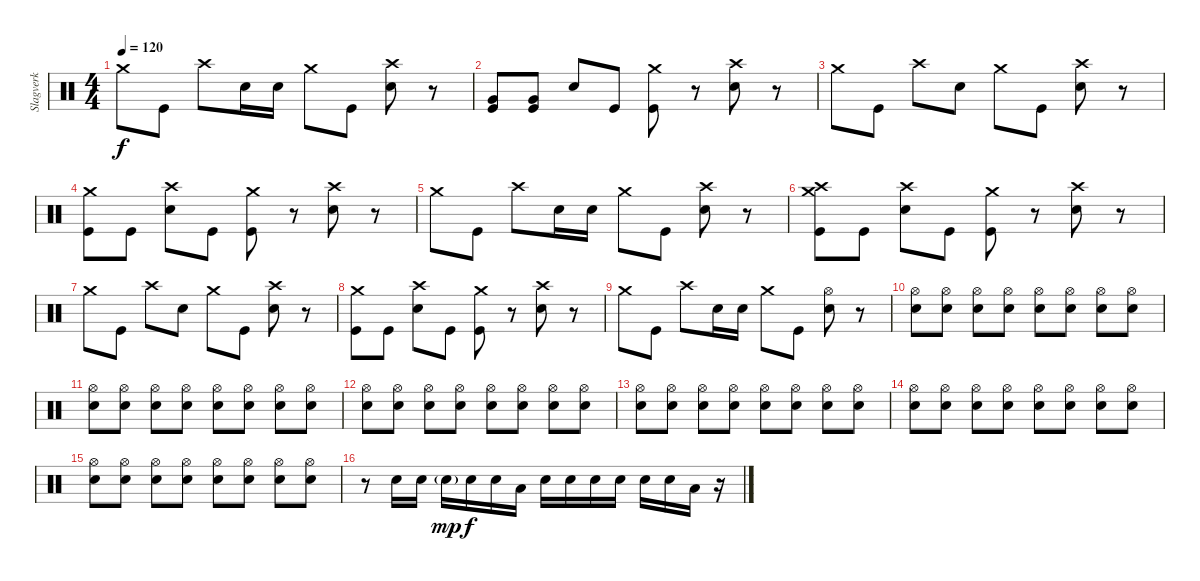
\track ("Slagverk" "Slagverk") {instrument percussion}
\staff {score}
\articulation defaults
\ts (4 4)
\tempo 120
\clef neutral
\ks c "Crash medium (hit)".8{dy f} "Kick (hit)".8 "Crash high (hit)".8 "Snare (hit) 2".16 "Snare (hit) 2".16 "Crash medium (hit)".8 "Kick (hit)".8
("Crash high (hit)" "Snare (hit) 2").8 r.8 |
("Very Low Tom (hit)" "Kick (hit)").8 ("Very Low Tom (hit)" "Kick (hit)").8 "Snare (hit) 2".8 "Kick (hit)".8 ("Crash medium (hit)" "Kick (hit)").8 r.8 ("Crash high (hit)" "Snare (hit) 2").8 r.8 |
"Crash medium (hit)".8 "Kick (hit)".8 "Crash high (hit)".8 "Snare (hit) 2".8 "Crash medium (hit)".8 "Kick (hit)".8 ("Crash high (hit)" "Snare (hit) 2").8 r.8 |
("Crash medium (hit)" "Kick (hit)").8 "Kick (hit)".8 ("Crash high (hit)" "Snare (hit) 2").8 "Kick (hit)".8 ("Crash medium (hit)" "Kick (hit)").8 r.8 ("Crash high (hit)" "Snare (hit) 2").8 r.8 |
"Crash medium (hit)".8 "Kick (hit)".8 "Crash high (hit)".8 "Snare (hit) 2".16 "Snare (hit) 2".16 "Crash medium (hit)".8 "Kick (hit)".8 ("Crash high (hit)" "Snare (hit) 2").8 r.8 |
("Crash medium (hit)" "Crash high (hit)" "Kick (hit)").8 "Kick (hit)".8 ("Crash high (hit)" "Snare (hit) 2").8 "Kick (hit)".8 ("Crash medium (hit)" "Kick (hit)").8 r.8 ("Crash high (hit)" "Snare (hit) 2").8 r.8 |
"Crash medium (hit)".8 "Kick (hit)".8 "Crash high (hit)".8 "Snare (hit) 2".8 "Crash medium (hit)".8 "Kick (hit)".8 ("Crash high (hit)" "Snare (hit) 2").8 r.8 |
("Crash medium (hit)" "Kick (hit)").8 "Kick (hit)".8 ("Crash high (hit)" "Snare (hit) 2").8 "Kick (hit)".8 ("Crash medium (hit)" "Kick (hit)").8 r.8 ("Crash high (hit)" "Snare (hit) 2").8 r.8 |
"Crash medium (hit)".8 "Kick (hit)".8 "Crash high (hit)".8 "Snare (hit) 2".16 "Snare (hit) 2".16 "Crash medium (hit)".8 "Kick (hit)".8 ("Hi-Hat (open)" "Snare (hit) 2").8 r.8 |
("Hi-Hat (open)" "Snare (hit) 2").8 ("Hi-Hat (open)" "Snare (hit) 2").8 ("Hi-Hat (open)" "Snare (hit) 2").8 ("Hi-Hat (open)" "Snare (hit) 2").8 ("Hi-Hat (open)" "Snare (hit) 2").8 ("Hi-Hat (open)" "Snare (hit) 2").8 ("Hi-Hat (open)" "Snare (hit) 2").8 ("Hi-Hat (open)" "Snare (hit) 2").8 |
("Hi-Hat (open)" "Snare (hit) 2").8 ("Hi-Hat (open)" "Snare (hit) 2").8 ("Hi-Hat (open)" "Snare (hit) 2").8 ("Hi-Hat (open)" "Snare (hit) 2").8 ("Hi-Hat (open)" "Snare (hit) 2").8 ("Hi-Hat (open)" "Snare (hit) 2").8 ("Hi-Hat (open)" "Snare (hit) 2").8 ("Hi-Hat (open)" "Snare (hit) 2").8 |
("Hi-Hat (open)" "Snare (hit) 2").8 ("Hi-Hat (open)" "Snare (hit) 2").8 ("Hi-Hat (open)" "Snare (hit) 2").8 ("Hi-Hat (open)" "Snare (hit) 2").8 ("Hi-Hat (open)" "Snare (hit) 2").8 ("Hi-Hat (open)" "Snare (hit) 2").8 ("Hi-Hat (open)" "Snare (hit) 2").8 ("Hi-Hat (open)" "Snare (hit) 2").8 |
("Hi-Hat (open)" "Snare (hit) 2").8 ("Hi-Hat (open)" "Snare (hit) 2").8 ("Hi-Hat (open)" "Snare (hit) 2").8 ("Hi-Hat (open)" "Snare (hit) 2").8 ("Hi-Hat (open)" "Snare (hit) 2").8 ("Hi-Hat (open)" "Snare (hit) 2").8 ("Hi-Hat (open)" "Snare (hit) 2").8 ("Hi-Hat (open)" "Snare (hit) 2").8 |
("Hi-Hat (open)" "Snare (hit) 2").8 ("Hi-Hat (open)" "Snare (hit) 2").8 ("Hi-Hat (open)" "Snare (hit) 2").8 ("Hi-Hat (open)" "Snare (hit) 2").8 ("Hi-Hat (open)" "Snare (hit) 2").8 ("Hi-Hat (open)" "Snare (hit) 2").8 ("Hi-Hat (open)" "Snare (hit) 2").8 ("Hi-Hat (open)" "Snare (hit) 2").8 |
("Hi-Hat (open)" "Snare (hit) 2").8 ("Hi-Hat (open)" "Snare (hit) 2").8 ("Hi-Hat (open)" "Snare (hit) 2").8 ("Hi-Hat (open)" "Snare (hit) 2").8 ("Hi-Hat (open)" "Snare (hit) 2").8 ("Hi-Hat (open)" "Snare (hit) 2").8 ("Hi-Hat (open)" "Snare (hit) 2").8 ("Hi-Hat (open)" "Snare (hit) 2").8 |
r.8 "Snare (hit) 2".16 "Snare (hit) 2".16 "Snare (hit) 2"{g}.16{dy mp} "Snare (hit) 2".16{dy f} "Snare (hit) 2".16 "Low Tom (hit)".16 "Snare (hit) 2".16 "Snare (hit) 2".16 "Snare (hit) 2".16 "Snare (hit) 2".16 "Snare (hit) 2".16 "Snare (hit) 2".16 "Low Tom (hit)".16 r.16
